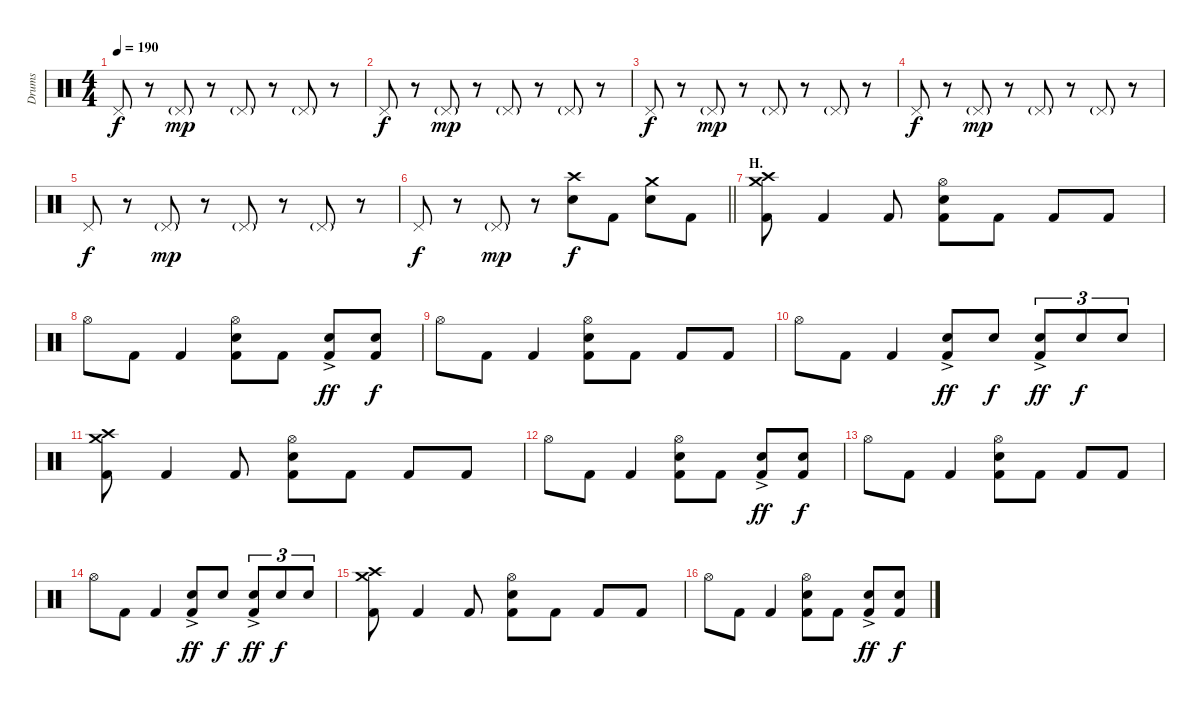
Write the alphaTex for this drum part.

\track ("Drums" "Drums") {instrument percussion}
\staff {score}
\articulation defaults
\ts (4 4)
\tempo 190
\clef neutral
\ks c "Pedal Hi-Hat (hit)".8{dy f}
r.8 "Pedal Hi-Hat (hit)"{g}.8{dy mp} r.8 "Pedal Hi-Hat (hit)"{g}.8 r.8 "Pedal Hi-Hat (hit)"{g}.8 r.8 |
"Pedal Hi-Hat (hit)".8{dy f} r.8 "Pedal Hi-Hat (hit)"{g}.8{dy mp} r.8 "Pedal Hi-Hat (hit)"{g}.8 r.8 "Pedal Hi-Hat (hit)"{g}.8 r.8 |
"Pedal Hi-Hat (hit)".8{dy f} r.8 "Pedal Hi-Hat (hit)"{g}.8{dy mp} r.8 "Pedal Hi-Hat (hit)"{g}.8 r.8 "Pedal Hi-Hat (hit)"{g}.8 r.8 |
"Pedal Hi-Hat (hit)".8{dy f} r.8 "Pedal Hi-Hat (hit)"{g}.8{dy mp} r.8 "Pedal Hi-Hat (hit)"{g}.8 r.8 "Pedal Hi-Hat (hit)"{g}.8 r.8 |
"Pedal Hi-Hat (hit)".8{dy f} r.8 "Pedal Hi-Hat (hit)"{g}.8{dy mp} r.8 "Pedal Hi-Hat (hit)"{g}.8 r.8 "Pedal Hi-Hat (hit)"{g}.8 r.8 |
\barLineRight lightlight "Pedal Hi-Hat (hit)".8{dy f}
r.8 "Pedal Hi-Hat (hit)"{g}.8{dy mp} r.8 ("Crash high (hit)" "Electric Snare (hit)").8{dy f} "Kick (hit) 2".8 ("Crash medium (hit)" "Electric Snare (hit)").8 "Kick (hit) 2".8 |
\section ("" "H.")
("Crash medium (hit)" "Crash high (hit)" "Kick (hit) 2").8 "Kick (hit) 2".4 "Kick (hit) 2".8 ("Hi-Hat (open)" "Electric Snare (hit)" "Kick (hit) 2").8 "Kick (hit) 2".8 "Kick (hit) 2".8 "Kick (hit) 2".8 |
"Hi-Hat (open)".8 "Kick (hit) 2".8 "Kick (hit) 2".4 ("Hi-Hat (open)" "Electric Snare (hit)" "Kick (hit) 2").8 "Kick (hit) 2".8 ("Electric Snare (hit)"{ac} "Kick (hit) 2").8{dy ff} ("Electric Snare (hit)" "Kick (hit) 2").8{dy f} |
"Hi-Hat (open)".8 "Kick (hit) 2".8 "Kick (hit) 2".4 ("Hi-Hat (open)" "Electric Snare (hit)" "Kick (hit) 2").8 "Kick (hit) 2".8 "Kick (hit) 2".8 "Kick (hit) 2".8 |
"Hi-Hat (open)".8 "Kick (hit) 2".8 "Kick (hit) 2".4 ("Electric Snare (hit)"{ac} "Kick (hit) 2").8{dy ff} "Electric Snare (hit)".8{dy f} ("Electric Snare (hit)"{ac} "Kick (hit) 2").8{tu (3 2) dy ff} "Electric Snare (hit)".8{tu (3 2) dy f} "Electric Snare (hit)".8{tu (3 2)} |
("Crash medium (hit)" "Crash high (hit)" "Kick (hit) 2").8 "Kick (hit) 2".4 "Kick (hit) 2".8 ("Hi-Hat (open)" "Electric Snare (hit)" "Kick (hit) 2").8 "Kick (hit) 2".8 "Kick (hit) 2".8 "Kick (hit) 2".8 |
"Hi-Hat (open)".8 "Kick (hit) 2".8 "Kick (hit) 2".4 ("Hi-Hat (open)" "Electric Snare (hit)" "Kick (hit) 2").8 "Kick (hit) 2".8 ("Electric Snare (hit)"{ac} "Kick (hit) 2").8{dy ff} ("Electric Snare (hit)" "Kick (hit) 2").8{dy f} |
"Hi-Hat (open)".8 "Kick (hit) 2".8 "Kick (hit) 2".4 ("Hi-Hat (open)" "Electric Snare (hit)" "Kick (hit) 2").8 "Kick (hit) 2".8 "Kick (hit) 2".8 "Kick (hit) 2".8 |
"Hi-Hat (open)".8 "Kick (hit) 2".8 "Kick (hit) 2".4 ("Electric Snare (hit)"{ac} "Kick (hit) 2").8{dy ff} "Electric Snare (hit)".8{dy f} ("Electric Snare (hit)"{ac} "Kick (hit) 2").8{tu (3 2) dy ff} "Electric Snare (hit)".8{tu (3 2) dy f} "Electric Snare (hit)".8{tu (3 2)} |
("Crash medium (hit)" "Crash high (hit)" "Kick (hit) 2").8 "Kick (hit) 2".4 "Kick (hit) 2".8 ("Hi-Hat (open)" "Electric Snare (hit)" "Kick (hit) 2").8 "Kick (hit) 2".8 "Kick (hit) 2".8 "Kick (hit) 2".8 |
"Hi-Hat (open)".8 "Kick (hit) 2".8 "Kick (hit) 2".4 ("Hi-Hat (open)" "Electric Snare (hit)" "Kick (hit) 2").8 "Kick (hit) 2".8 ("Electric Snare (hit)"{ac} "Kick (hit) 2").8{dy ff} ("Electric Snare (hit)" "Kick (hit) 2").8{dy f}
